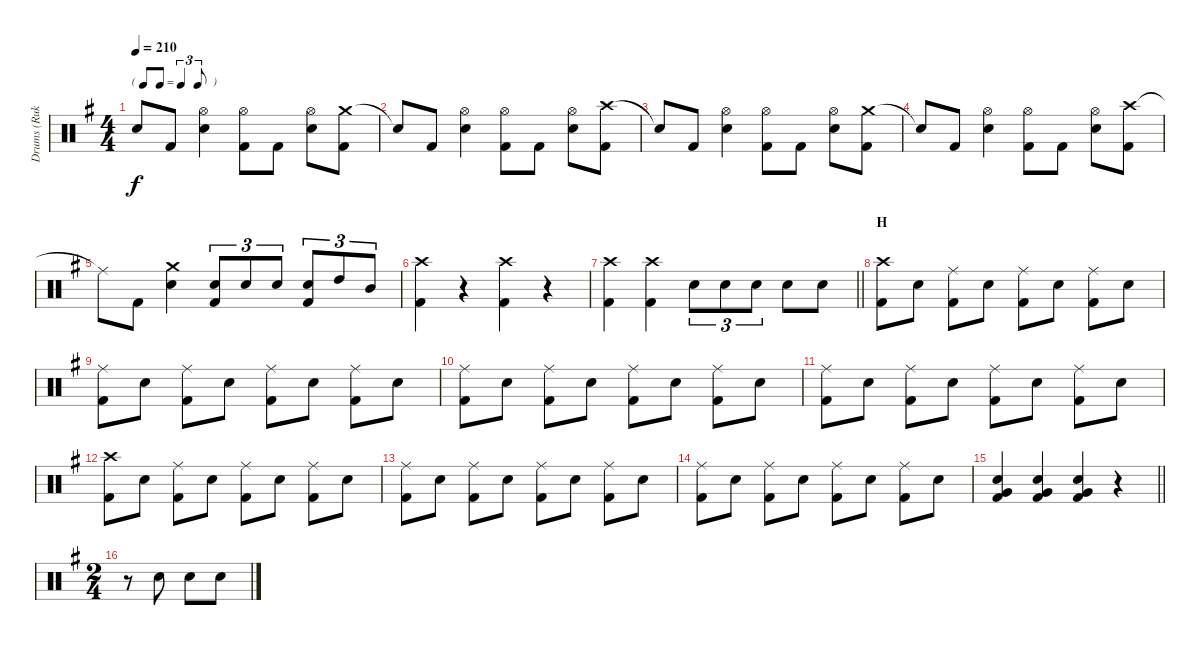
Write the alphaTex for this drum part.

\track ("Drums (Ruka)" "Drums (Ruk") {instrument percussion}
\staff {score}
\articulation defaults
\ts (4 4)
\tf triplet8th
\tempo 210
\clef neutral
\ks g "Snare (hit)"{t}.8{dy f} "Kick (hit) 2".8
("Hi-Hat (open)" "Electric Snare (hit)").4 ("Hi-Hat (open)" "Kick (hit) 2").8 "Kick (hit) 2".8 ("Hi-Hat (open)" "Electric Snare (hit)").8 ("Crash medium (hit)" "Kick (hit) 2").8 |
"Snare (hit)"{t}.8 "Kick (hit) 2".8 ("Hi-Hat (open)" "Electric Snare (hit)").4 ("Hi-Hat (open)" "Kick (hit) 2").8 "Kick (hit) 2".8 ("Hi-Hat (open)" "Electric Snare (hit)").8 ("Crash high (hit)" "Kick (hit) 2").8 |
"Snare (hit)"{t}.8 "Kick (hit) 2".8 ("Hi-Hat (open)" "Electric Snare (hit)").4 ("Hi-Hat (open)" "Kick (hit) 2").8 "Kick (hit) 2".8 ("Hi-Hat (open)" "Electric Snare (hit)").8 ("Crash medium (hit)" "Kick (hit) 2").8 |
"Snare (hit)"{t}.8 "Kick (hit) 2".8 ("Hi-Hat (open)" "Electric Snare (hit)").4 ("Hi-Hat (open)" "Kick (hit) 2").8 "Kick (hit) 2".8 ("Hi-Hat (open)" "Electric Snare (hit)").8 ("Crash high (hit)" "Kick (hit) 2").8 |
"Ride (middle)"{t}.8 "Kick (hit) 2".8 ("Crash medium (hit)" "Electric Snare (hit)").4 ("Electric Snare (hit)" "Kick (hit) 2").8{tu (3 2)} "Electric Snare (hit)".8{tu (3 2)} "Electric Snare (hit)".8{tu (3 2)} ("Electric Snare (hit)" "Kick (hit) 2").8{tu (3 2)} "High Tom (hit)".8{tu (3 2)} "Mid Tom (hit)".8{tu (3 2)} |
("Crash high (hit)" "Kick (hit) 2").4 r.4 ("Crash high (hit)" "Kick (hit) 2").4 r.4 |
\barLineRight lightlight
("Crash high (hit)" "Kick (hit) 2").4 ("Crash high (hit)" "Kick (hit) 2").4 "Electric Snare (hit)".8{tu (3 2)} "Electric Snare (hit)".8{tu (3 2)} "Electric Snare (hit)".8{tu (3 2)} "Electric Snare (hit)".8 "Electric Snare (hit)".8 |
\section ("" "H")
("Crash high (hit)" "Kick (hit) 2").8 "Electric Snare (hit)".8 ("Ride (middle)" "Kick (hit) 2").8 "Electric Snare (hit)".8 ("Ride (middle)" "Kick (hit) 2").8 "Electric Snare (hit)".8 ("Ride (middle)" "Kick (hit) 2").8 "Electric Snare (hit)".8 |
("Ride (middle)" "Kick (hit) 2").8 "Electric Snare (hit)".8 ("Ride (middle)" "Kick (hit) 2").8 "Electric Snare (hit)".8 ("Ride (middle)" "Kick (hit) 2").8 "Electric Snare (hit)".8 ("Ride (middle)" "Kick (hit) 2").8 "Electric Snare (hit)".8 |
("Ride (middle)" "Kick (hit) 2").8 "Electric Snare (hit)".8 ("Ride (middle)" "Kick (hit) 2").8 "Electric Snare (hit)".8 ("Ride (middle)" "Kick (hit) 2").8 "Electric Snare (hit)".8 ("Ride (middle)" "Kick (hit) 2").8 "Electric Snare (hit)".8 |
("Ride (middle)" "Kick (hit) 2").8 "Electric Snare (hit)".8 ("Ride (middle)" "Kick (hit) 2").8 "Electric Snare (hit)".8 ("Ride (middle)" "Kick (hit) 2").8 "Electric Snare (hit)".8 ("Ride (middle)" "Kick (hit) 2").8 "Electric Snare (hit)".8 |
("Crash high (hit)" "Kick (hit) 2").8 "Electric Snare (hit)".8 ("Ride (middle)" "Kick (hit) 2").8 "Electric Snare (hit)".8 ("Ride (middle)" "Kick (hit) 2").8 "Electric Snare (hit)".8 ("Ride (middle)" "Kick (hit) 2").8 "Electric Snare (hit)".8 |
("Ride (middle)" "Kick (hit) 2").8 "Electric Snare (hit)".8 ("Ride (middle)" "Kick (hit) 2").8 "Electric Snare (hit)".8 ("Ride (middle)" "Kick (hit) 2").8 "Electric Snare (hit)".8 ("Ride (middle)" "Kick (hit) 2").8 "Electric Snare (hit)".8 |
("Ride (middle)" "Kick (hit) 2").8 "Electric Snare (hit)".8 ("Ride (middle)" "Kick (hit) 2").8 "Electric Snare (hit)".8 ("Ride (middle)" "Kick (hit) 2").8 "Electric Snare (hit)".8 ("Ride (middle)" "Kick (hit) 2").8 "Electric Snare (hit)".8 |
\barLineRight lightlight
("Electric Snare (hit)" "Very Low Tom (hit)" "Kick (hit) 2").4 ("Electric Snare (hit)" "Very Low Tom (hit)" "Kick (hit) 2").4 ("Electric Snare (hit)" "Very Low Tom (hit)" "Kick (hit) 2").4 r.4 |
\ts (2 4)
r.8 "Electric Snare (hit)".8 "Electric Snare (hit)".8 "Electric Snare (hit)".8
